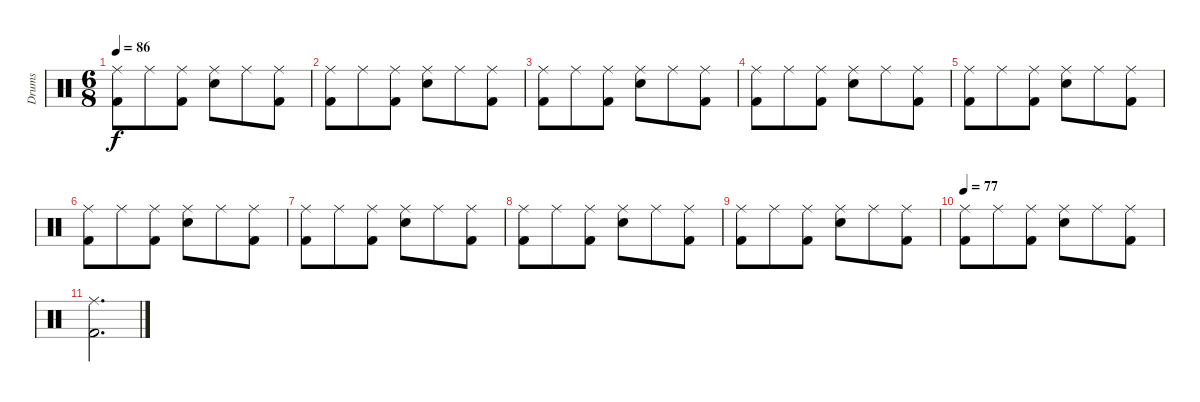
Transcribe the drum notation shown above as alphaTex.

\track ("Drums" "Drums") {instrument percussion}
\staff {score}
\articulation defaults
\ts (6 8)
\tempo 86
\clef neutral
\ks c
("Ride (middle)" "Kick (hit) 2").8{dy f} "Ride (middle)".8 ("Ride (middle)" "Kick (hit) 2").8 ("Ride (middle)" "Snare (hit) 2").8 "Ride (middle)".8 ("Ride (middle)" "Kick (hit) 2").8 |
("Ride (middle)" "Kick (hit) 2").8 "Ride (middle)".8 ("Ride (middle)" "Kick (hit) 2").8 ("Ride (middle)" "Snare (hit) 2").8 "Ride (middle)".8 ("Ride (middle)" "Kick (hit) 2").8 |
("Ride (middle)" "Kick (hit) 2").8 "Ride (middle)".8 ("Ride (middle)" "Kick (hit) 2").8 ("Ride (middle)" "Snare (hit) 2").8 "Ride (middle)".8 ("Ride (middle)" "Kick (hit) 2").8 |
("Ride (middle)" "Kick (hit) 2").8 "Ride (middle)".8 ("Ride (middle)" "Kick (hit) 2").8 ("Ride (middle)" "Snare (hit) 2").8 "Ride (middle)".8 ("Ride (middle)" "Kick (hit) 2").8 |
("Ride (middle)" "Kick (hit) 2").8 "Ride (middle)".8 ("Ride (middle)" "Kick (hit) 2").8 ("Ride (middle)" "Snare (hit) 2").8 "Ride (middle)".8 ("Ride (middle)" "Kick (hit) 2").8 |
("Ride (middle)" "Kick (hit) 2").8 "Ride (middle)".8 ("Ride (middle)" "Kick (hit) 2").8 ("Ride (middle)" "Snare (hit) 2").8 "Ride (middle)".8 ("Ride (middle)" "Kick (hit) 2").8 |
("Ride (middle)" "Kick (hit) 2").8 "Ride (middle)".8 ("Ride (middle)" "Kick (hit) 2").8 ("Ride (middle)" "Snare (hit) 2").8 "Ride (middle)".8 ("Ride (middle)" "Kick (hit) 2").8 |
("Ride (middle)" "Kick (hit) 2").8 "Ride (middle)".8 ("Ride (middle)" "Kick (hit) 2").8 ("Ride (middle)" "Snare (hit) 2").8 "Ride (middle)".8 ("Ride (middle)" "Kick (hit) 2").8 |
("Ride (middle)" "Kick (hit) 2").8 "Ride (middle)".8 ("Ride (middle)" "Kick (hit) 2").8 ("Ride (middle)" "Snare (hit) 2").8 "Ride (middle)".8 ("Ride (middle)" "Kick (hit) 2").8 |
\tempo 77
("Ride (middle)" "Kick (hit) 2").8 "Ride (middle)".8 ("Ride (middle)" "Kick (hit) 2").8 ("Ride (middle)" "Snare (hit) 2").8 "Ride (middle)".8 ("Ride (middle)" "Kick (hit) 2").8 |
("Ride (middle)" "Kick (hit) 2").2{d}
